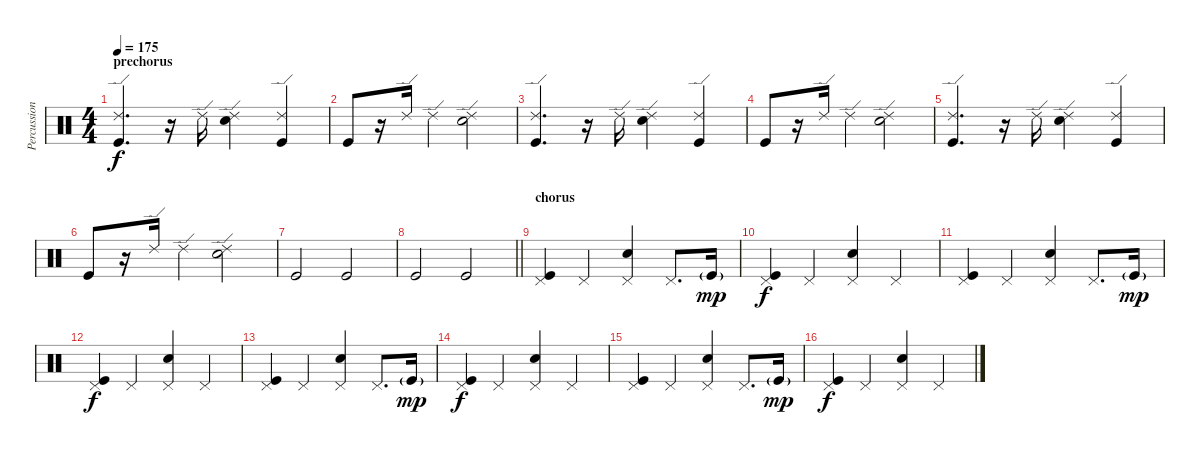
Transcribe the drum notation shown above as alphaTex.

\track ("Percussion" "Percussion") {instrument percussion}
\staff {score}
\articulation defaults
\ts (4 4)
\section ("" "prechorus")
\tempo 175
\clef neutral
\ks c
("Ride (edge) 2" "Kick (hit)").4{d dy f} r.16 "Ride (edge) 2".16 ("Ride (edge) 2" "Hand Clap (hit)").4 ("Ride (edge) 2" "Kick (hit)").4 |
"Kick (hit)".8 r.16 "Ride (edge) 2".16 "Ride (edge) 2".4 ("Ride (edge) 2" "Hand Clap (hit)").2 |
("Ride (edge) 2" "Kick (hit)").4{d} r.16 "Ride (edge) 2".16 ("Ride (edge) 2" "Hand Clap (hit)").4 ("Ride (edge) 2" "Kick (hit)").4 |
"Kick (hit)".8 r.16 "Ride (edge) 2".16 "Ride (edge) 2".4 ("Ride (edge) 2" "Hand Clap (hit)").2 |
("Ride (edge) 2" "Kick (hit)").4{d} r.16 "Ride (edge) 2".16 ("Ride (edge) 2" "Hand Clap (hit)").4 ("Ride (edge) 2" "Kick (hit)").4 |
"Kick (hit)".8 r.16 "Ride (edge) 2".16 "Ride (edge) 2".4 ("Ride (edge) 2" "Hand Clap (hit)").2 |
"Kick (hit)".2 "Kick (hit)".2 |
\barLineRight lightlight "Kick (hit)".2 "Kick (hit)".2
|
\section ("" "chorus")
("Pedal Hi-Hat (hit)" "Kick (hit)").4 "Pedal Hi-Hat (hit)".4 ("Pedal Hi-Hat (hit)" "Electric Snare (hit)").4 "Pedal Hi-Hat (hit)".8{d} "Kick (hit)"{g}.16{dy mp} |
("Pedal Hi-Hat (hit)" "Kick (hit)").4{dy f} "Pedal Hi-Hat (hit)".4 ("Pedal Hi-Hat (hit)" "Electric Snare (hit)").4 "Pedal Hi-Hat (hit)".4 |
("Pedal Hi-Hat (hit)" "Kick (hit)").4 "Pedal Hi-Hat (hit)".4 ("Pedal Hi-Hat (hit)" "Electric Snare (hit)").4 "Pedal Hi-Hat (hit)".8{d} "Kick (hit)"{g}.16{dy mp} |
("Pedal Hi-Hat (hit)" "Kick (hit)").4{dy f} "Pedal Hi-Hat (hit)".4 ("Pedal Hi-Hat (hit)" "Electric Snare (hit)").4 "Pedal Hi-Hat (hit)".4 |
("Pedal Hi-Hat (hit)" "Kick (hit)").4 "Pedal Hi-Hat (hit)".4 ("Pedal Hi-Hat (hit)" "Electric Snare (hit)").4 "Pedal Hi-Hat (hit)".8{d} "Kick (hit)"{g}.16{dy mp} |
("Pedal Hi-Hat (hit)" "Kick (hit)").4{dy f} "Pedal Hi-Hat (hit)".4 ("Pedal Hi-Hat (hit)" "Electric Snare (hit)").4 "Pedal Hi-Hat (hit)".4 |
("Pedal Hi-Hat (hit)" "Kick (hit)").4 "Pedal Hi-Hat (hit)".4 ("Pedal Hi-Hat (hit)" "Electric Snare (hit)").4 "Pedal Hi-Hat (hit)".8{d} "Kick (hit)"{g}.16{dy mp} |
("Pedal Hi-Hat (hit)" "Kick (hit)").4{dy f} "Pedal Hi-Hat (hit)".4 ("Pedal Hi-Hat (hit)" "Electric Snare (hit)").4 "Pedal Hi-Hat (hit)".4
